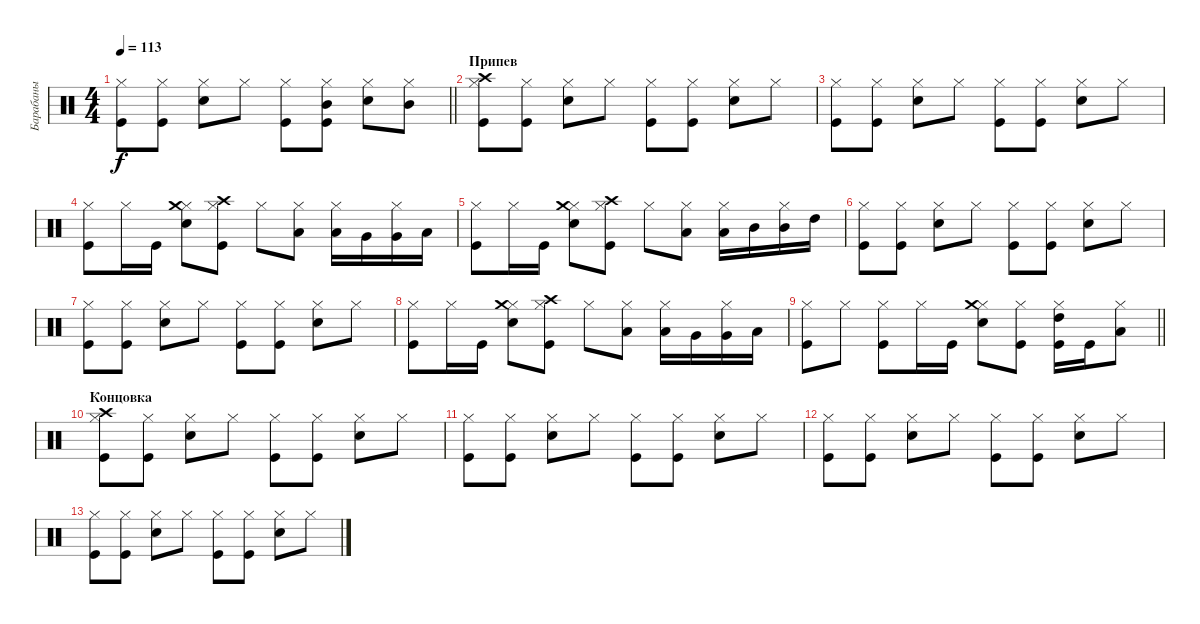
\track ("Барабаны" "Барабаны") {instrument percussion}
\staff {score}
\articulation defaults
\ts (4 4)
\tempo 113
\clef neutral
\barLineRight lightlight
\ks c
("Kick (hit)" "Hi-Hat (closed)").8{dy f} ("Kick (hit)" "Hi-Hat (closed)").8 ("Snare (hit) 2" "Hi-Hat (closed)").8 "Hi-Hat (closed)".8 ("Kick (hit)" "Hi-Hat (closed)").8 ("Kick (hit)" "Hi-Hat (closed)" "Mid Tom (hit)").8 ("Snare (hit) 2" "Hi-Hat (closed)").8 ("Hi-Hat (closed)" "Mid Tom (hit)").8 |
\section ("" "Припев")
("Kick (hit)" "Hi-Hat (closed)" "Crash high (hit)").8 ("Kick (hit)" "Hi-Hat (closed)").8 ("Snare (hit) 2" "Hi-Hat (closed)").8 "Hi-Hat (closed)".8 ("Kick (hit)" "Hi-Hat (closed)").8 ("Kick (hit)" "Hi-Hat (closed)").8 ("Snare (hit) 2" "Hi-Hat (closed)").8 "Hi-Hat (closed)".8 |
("Kick (hit)" "Hi-Hat (closed)").8 ("Kick (hit)" "Hi-Hat (closed)").8 ("Snare (hit) 2" "Hi-Hat (closed)").8 "Hi-Hat (closed)".8 ("Kick (hit)" "Hi-Hat (closed)").8 ("Kick (hit)" "Hi-Hat (closed)").8 ("Snare (hit) 2" "Hi-Hat (closed)").8 "Hi-Hat (closed)".8 |
("Kick (hit)" "Hi-Hat (closed)").8 "Hi-Hat (closed)".16 "Kick (hit)".16 ("Snare (hit) 2" "Hi-Hat (closed)" "Crash medium (hit)").8 ("Kick (hit)" "Hi-Hat (closed)" "Crash high (hit)").8 "Hi-Hat (closed)".8 ("Hi-Hat (closed)" "Low Floor Tom (hit)").8 ("Hi-Hat (closed)" "Low Floor Tom (hit)").16 "Very Low Tom (hit)".16 ("Hi-Hat (closed)" "Very Low Tom (hit)").16 "Low Tom (hit)".16 |
("Kick (hit)" "Hi-Hat (closed)").8 "Hi-Hat (closed)".16 "Kick (hit)".16 ("Snare (hit) 2" "Hi-Hat (closed)" "Crash medium (hit)").8 ("Kick (hit)" "Hi-Hat (closed)" "Crash high (hit)").8 "Hi-Hat (closed)".8 ("Hi-Hat (closed)" "Low Tom (hit)").8 ("Hi-Hat (closed)" "Low Tom (hit)").16 "Mid Tom (hit)".16 ("Hi-Hat (closed)" "Mid Tom (hit)").16 "High Tom (hit)".16 |
("Kick (hit)" "Hi-Hat (closed)").8 ("Kick (hit)" "Hi-Hat (closed)").8 ("Snare (hit) 2" "Hi-Hat (closed)").8 "Hi-Hat (closed)".8 ("Kick (hit)" "Hi-Hat (closed)").8 ("Kick (hit)" "Hi-Hat (closed)").8 ("Snare (hit) 2" "Hi-Hat (closed)").8 "Hi-Hat (closed)".8 |
("Kick (hit)" "Hi-Hat (closed)").8 ("Kick (hit)" "Hi-Hat (closed)").8 ("Snare (hit) 2" "Hi-Hat (closed)").8 "Hi-Hat (closed)".8 ("Kick (hit)" "Hi-Hat (closed)").8 ("Kick (hit)" "Hi-Hat (closed)").8 ("Snare (hit) 2" "Hi-Hat (closed)").8 "Hi-Hat (closed)".8 |
("Kick (hit)" "Hi-Hat (closed)").8 "Hi-Hat (closed)".16 "Kick (hit)".16 ("Snare (hit) 2" "Hi-Hat (closed)" "Crash medium (hit)").8 ("Kick (hit)" "Hi-Hat (closed)" "Crash high (hit)").8 "Hi-Hat (closed)".8 ("Hi-Hat (closed)" "Low Floor Tom (hit)").8 ("Hi-Hat (closed)" "Low Floor Tom (hit)").16 "Very Low Tom (hit)".16 ("Hi-Hat (closed)" "Very Low Tom (hit)").16 "Low Tom (hit)".16 |
\barLineRight lightlight
("Kick (hit)" "Hi-Hat (closed)").8 "Hi-Hat (closed)".8 ("Kick (hit)" "Hi-Hat (closed)").8 "Hi-Hat (closed)".16 "Kick (hit)".16 ("Snare (hit) 2" "Hi-Hat (closed)" "Crash medium (hit)").8 ("Kick (hit)" "Hi-Hat (closed)").8 ("Kick (hit)" "Hi-Hat (closed)" "High Tom (hit)").16 "Kick (hit)".16 ("Hi-Hat (closed)" "Low Floor Tom (hit)").8 |
\section ("" "Концовка")
("Kick (hit)" "Hi-Hat (closed)" "Crash high (hit)").8 ("Kick (hit)" "Hi-Hat (closed)").8 ("Snare (hit) 2" "Hi-Hat (closed)").8 "Hi-Hat (closed)".8 ("Kick (hit)" "Hi-Hat (closed)").8 ("Kick (hit)" "Hi-Hat (closed)").8 ("Snare (hit) 2" "Hi-Hat (closed)").8 "Hi-Hat (closed)".8 |
("Kick (hit)" "Hi-Hat (closed)").8 ("Kick (hit)" "Hi-Hat (closed)").8 ("Snare (hit) 2" "Hi-Hat (closed)").8 "Hi-Hat (closed)".8 ("Kick (hit)" "Hi-Hat (closed)").8 ("Kick (hit)" "Hi-Hat (closed)").8 ("Snare (hit) 2" "Hi-Hat (closed)").8 "Hi-Hat (closed)".8 |
("Kick (hit)" "Hi-Hat (closed)").8 ("Kick (hit)" "Hi-Hat (closed)").8 ("Snare (hit) 2" "Hi-Hat (closed)").8 "Hi-Hat (closed)".8 ("Kick (hit)" "Hi-Hat (closed)").8 ("Kick (hit)" "Hi-Hat (closed)").8 ("Snare (hit) 2" "Hi-Hat (closed)").8 "Hi-Hat (closed)".8 |
("Kick (hit)" "Hi-Hat (closed)").8 ("Kick (hit)" "Hi-Hat (closed)").8 ("Snare (hit) 2" "Hi-Hat (closed)").8 "Hi-Hat (closed)".8 ("Kick (hit)" "Hi-Hat (closed)").8 ("Kick (hit)" "Hi-Hat (closed)").8 ("Snare (hit) 2" "Hi-Hat (closed)").8 "Hi-Hat (closed)".8
